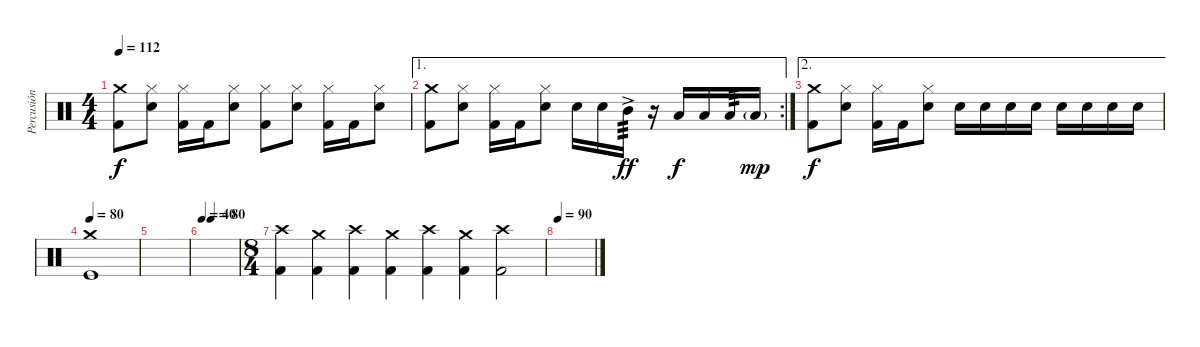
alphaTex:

\track ("Percusión" "Percusión") {instrument percussion}
\staff {score}
\articulation defaults
\ts (4 4)
\tempo 112
\clef neutral
\ks c
("Crash medium (hit)" "Kick (hit) 2").8{dy f} ("Hi-Hat (closed)" "Electric Snare (hit)").8 ("Hi-Hat (closed)" "Kick (hit) 2").16 "Kick (hit) 2".16 ("Hi-Hat (closed)" "Electric Snare (hit)").8 ("Hi-Hat (closed)" "Kick (hit) 2").8 ("Hi-Hat (closed)" "Electric Snare (hit)").8 ("Hi-Hat (closed)" "Kick (hit) 2").16 "Kick (hit) 2".16 ("Hi-Hat (closed)" "Electric Snare (hit)").8 |
\ae 1
\rc 2
("Crash medium (hit)" "Kick (hit) 2").8 ("Hi-Hat (closed)" "Electric Snare (hit)").8 ("Hi-Hat (closed)" "Kick (hit) 2").16 "Kick (hit) 2".16 ("Hi-Hat (closed)" "Electric Snare (hit)").8 "Electric Snare (hit)".16 "Electric Snare (hit)".16 "Mid Tom (hit)"{ac}.16{tp 3 dy ff} r.16 "Low Tom (hit)".16{dy f} "Low Tom (hit)".16 "Low Tom (hit)".16{tp 3} "Low Tom (hit)"{g}.16{dy mp} |
\ae 2
("Crash medium (hit)" "Kick (hit) 2").8{dy f} ("Hi-Hat (closed)" "Electric Snare (hit)").8 ("Hi-Hat (closed)" "Kick (hit) 2").16 "Kick (hit) 2".16 ("Hi-Hat (closed)" "Electric Snare (hit)").8 "Electric Snare (hit)".16 "Electric Snare (hit)".16 "Electric Snare (hit)".16 "Electric Snare (hit)".16 "Electric Snare (hit)".16 "Electric Snare (hit)".16 "Electric Snare (hit)".16 "Electric Snare (hit)".16 |
\tempo 80
("Crash medium (hit)" "Kick (hit)").1 |
|
\tempo 40
\tempo (80 0.25)
|
\ts (8 4)
("Crash high (hit)" "Kick (hit) 2").4 ("Crash medium (hit)" "Kick (hit) 2").4 ("Crash high (hit)" "Kick (hit) 2").4 ("Crash medium (hit)" "Kick (hit) 2").4 ("Crash high (hit)" "Kick (hit) 2").4 ("Crash medium (hit)" "Kick (hit) 2").4 ("Crash high (hit)" "Kick (hit) 2").2 |
\tempo 90
